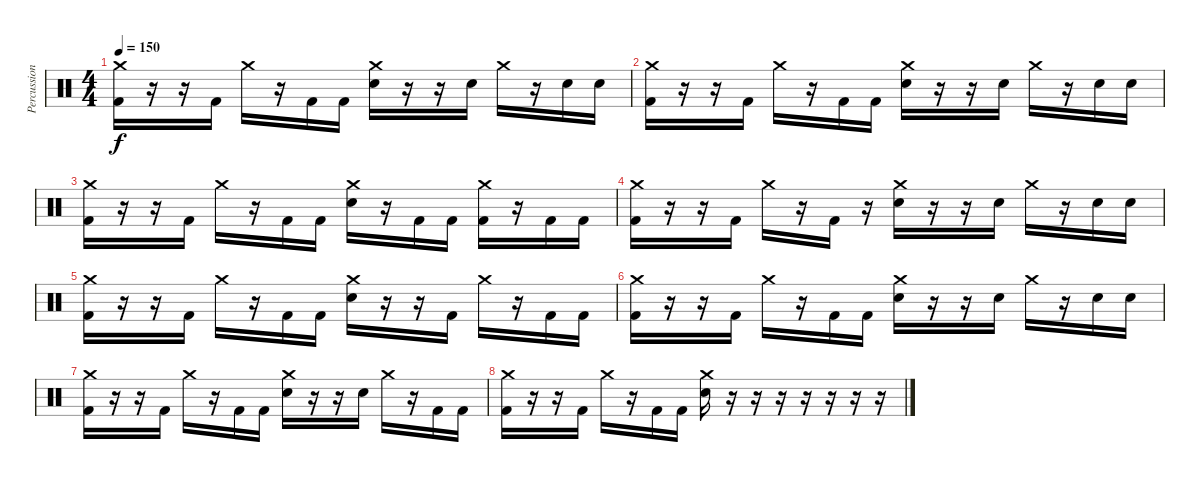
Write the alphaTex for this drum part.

\track ("Percussion" "Percussion") {instrument percussion}
\staff {score}
\articulation defaults
\ts (4 4)
\tempo 150
\clef neutral
\ks c
("Crash medium (hit)" "Kick (hit) 2").16{dy f} r.16 r.16 "Kick (hit) 2".16 "Crash medium (hit)".16 r.16 "Kick (hit) 2".16 "Kick (hit) 2".16 ("Crash medium (hit)" "Electric Snare (hit)").16 r.16 r.16 "Electric Snare (hit)".16 "Crash medium (hit)".16 r.16 "Electric Snare (hit)".16 "Electric Snare (hit)".16 |
("Crash medium (hit)" "Kick (hit) 2").16 r.16 r.16 "Kick (hit) 2".16 "Crash medium (hit)".16 r.16 "Kick (hit) 2".16 "Kick (hit) 2".16 ("Crash medium (hit)" "Electric Snare (hit)").16 r.16 r.16 "Electric Snare (hit)".16 "Crash medium (hit)".16 r.16 "Electric Snare (hit)".16 "Electric Snare (hit)".16 |
("Crash medium (hit)" "Kick (hit) 2").16 r.16 r.16 "Kick (hit) 2".16 "Crash medium (hit)".16 r.16 "Kick (hit) 2".16 "Kick (hit) 2".16 ("Crash medium (hit)" "Electric Snare (hit)").16 r.16 "Kick (hit) 2".16 "Kick (hit) 2".16 ("Crash medium (hit)" "Kick (hit) 2").16 r.16 "Kick (hit) 2".16 "Kick (hit) 2".16 |
("Crash medium (hit)" "Kick (hit) 2").16 r.16 r.16 "Kick (hit) 2".16 "Crash medium (hit)".16 r.16 "Kick (hit) 2".16 r.16 ("Crash medium (hit)" "Electric Snare (hit)").16 r.16 r.16 "Electric Snare (hit)".16 "Crash medium (hit)".16 r.16 "Electric Snare (hit)".16 "Electric Snare (hit)".16 |
("Crash medium (hit)" "Kick (hit) 2").16 r.16 r.16 "Kick (hit) 2".16 "Crash medium (hit)".16 r.16 "Kick (hit) 2".16 "Kick (hit) 2".16 ("Crash medium (hit)" "Electric Snare (hit)").16 r.16 r.16 "Kick (hit) 2".16 "Crash medium (hit)".16 r.16 "Kick (hit) 2".16 "Kick (hit) 2".16 |
("Crash medium (hit)" "Kick (hit) 2").16 r.16 r.16 "Kick (hit) 2".16 "Crash medium (hit)".16 r.16 "Kick (hit) 2".16 "Kick (hit) 2".16 ("Crash medium (hit)" "Electric Snare (hit)").16 r.16 r.16 "Electric Snare (hit)".16 "Crash medium (hit)".16 r.16 "Electric Snare (hit)".16 "Electric Snare (hit)".16 |
("Crash medium (hit)" "Kick (hit) 2").16 r.16 r.16 "Kick (hit) 2".16 "Crash medium (hit)".16 r.16 "Kick (hit) 2".16 "Kick (hit) 2".16 ("Crash medium (hit)" "Electric Snare (hit)").16 r.16 r.16 "Electric Snare (hit)".16 "Crash medium (hit)".16 r.16 "Kick (hit) 2".16 "Kick (hit) 2".16 |
("Crash medium (hit)" "Kick (hit) 2").16 r.16 r.16 "Kick (hit) 2".16 "Crash medium (hit)".16 r.16 "Kick (hit) 2".16 "Kick (hit) 2".16 ("Crash medium (hit)" "Electric Snare (hit)").16 r.16 r.16 r.16 r.16 r.16 r.16 r.16
